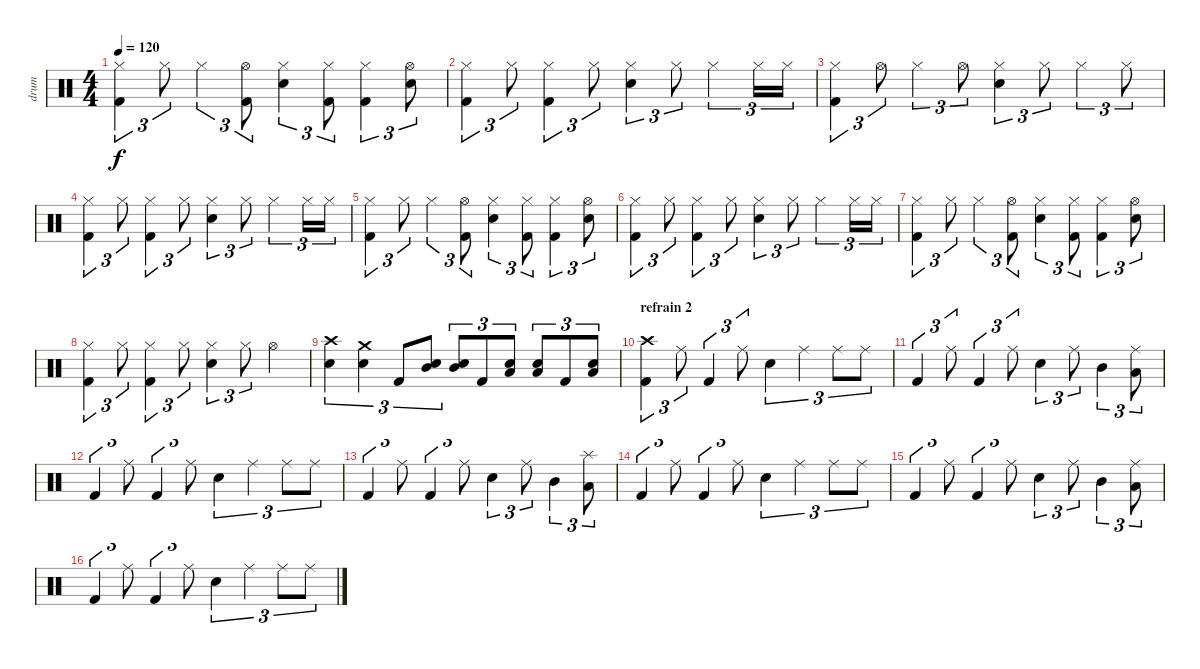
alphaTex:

\track ("drum" "drum") {instrument percussion}
\staff {score}
\articulation defaults
\ts (4 4)
\tempo 120
\clef neutral
\ks c
("Hi-Hat (closed)" "Kick (hit) 2").4{tu (3 2) dy f} "Hi-Hat (closed)".8{tu (3 2)} "Hi-Hat (closed)".4{tu (3 2)} ("Hi-Hat (open)" "Kick (hit) 2").8{tu (3 2)} ("Hi-Hat (closed)" "Electric Snare (hit)").4{tu (3 2)} ("Hi-Hat (closed)" "Kick (hit) 2").8{tu (3 2)} ("Hi-Hat (closed)" "Kick (hit) 2").4{tu (3 2)} ("Hi-Hat (open)" "Electric Snare (hit)").8{tu (3 2)} |
("Hi-Hat (closed)" "Kick (hit) 2").4{tu (3 2)} "Hi-Hat (closed)".8{tu (3 2)} ("Hi-Hat (closed)" "Kick (hit) 2").4{tu (3 2)} "Hi-Hat (closed)".8{tu (3 2)} ("Hi-Hat (closed)" "Electric Snare (hit)").4{tu (3 2)} "Hi-Hat (closed)".8{tu (3 2)} "Hi-Hat (closed)".4{tu (3 2)} "Hi-Hat (closed)".16{tu (3 2)} "Hi-Hat (closed)".16{tu (3 2)} |
("Hi-Hat (closed)" "Kick (hit) 2").4{tu (3 2)} "Hi-Hat (open)".8{tu (3 2)} "Hi-Hat (closed)".4{tu (3 2)} "Hi-Hat (open)".8{tu (3 2)} ("Hi-Hat (closed)" "Electric Snare (hit)").4{tu (3 2)} "Hi-Hat (closed)".8{tu (3 2)} "Hi-Hat (closed)".4{tu (3 2)} "Hi-Hat (closed)".8{tu (3 2)} |
("Hi-Hat (closed)" "Kick (hit) 2").4{tu (3 2)} "Hi-Hat (closed)".8{tu (3 2)} ("Hi-Hat (closed)" "Kick (hit) 2").4{tu (3 2)} "Hi-Hat (closed)".8{tu (3 2)} ("Hi-Hat (closed)" "Electric Snare (hit)").4{tu (3 2)} "Hi-Hat (closed)".8{tu (3 2)} "Hi-Hat (closed)".4{tu (3 2)} "Hi-Hat (closed)".16{tu (3 2)} "Hi-Hat (closed)".16{tu (3 2)} |
("Hi-Hat (closed)" "Kick (hit) 2").4{tu (3 2)} "Hi-Hat (closed)".8{tu (3 2)} "Hi-Hat (closed)".4{tu (3 2)} ("Hi-Hat (open)" "Kick (hit) 2").8{tu (3 2)} ("Hi-Hat (closed)" "Electric Snare (hit)").4{tu (3 2)} ("Hi-Hat (closed)" "Kick (hit) 2").8{tu (3 2)} ("Hi-Hat (closed)" "Kick (hit) 2").4{tu (3 2)} ("Hi-Hat (open)" "Electric Snare (hit)").8{tu (3 2)} |
("Hi-Hat (closed)" "Kick (hit) 2").4{tu (3 2)} "Hi-Hat (closed)".8{tu (3 2)} ("Hi-Hat (closed)" "Kick (hit) 2").4{tu (3 2)} "Hi-Hat (closed)".8{tu (3 2)} ("Hi-Hat (closed)" "Electric Snare (hit)").4{tu (3 2)} "Hi-Hat (closed)".8{tu (3 2)} "Hi-Hat (closed)".4{tu (3 2)} "Hi-Hat (closed)".16{tu (3 2)} "Hi-Hat (closed)".16{tu (3 2)} |
("Hi-Hat (closed)" "Kick (hit) 2").4{tu (3 2)} "Hi-Hat (closed)".8{tu (3 2)} "Hi-Hat (closed)".4{tu (3 2)} ("Hi-Hat (open)" "Kick (hit) 2").8{tu (3 2)} ("Hi-Hat (closed)" "Electric Snare (hit)").4{tu (3 2)} ("Hi-Hat (closed)" "Kick (hit) 2").8{tu (3 2)} ("Hi-Hat (closed)" "Kick (hit) 2").4{tu (3 2)} ("Hi-Hat (open)" "Electric Snare (hit)").8{tu (3 2)} |
("Hi-Hat (closed)" "Kick (hit) 2").4{tu (3 2)} "Hi-Hat (closed)".8{tu (3 2)} ("Hi-Hat (closed)" "Kick (hit) 2").4{tu (3 2)} "Hi-Hat (closed)".8{tu (3 2)} ("Hi-Hat (closed)" "Electric Snare (hit)").4{tu (3 2)} "Hi-Hat (closed)".8{tu (3 2)} "Hi-Hat (open)".4 |
("Crash high (hit)" "Electric Snare (hit)").4{tu (3 2)} ("Crash medium (hit)" "Electric Snare (hit)").4{tu (3 2)} "Kick (hit) 2".8{tu (3 2)} ("Mid Tom (hit)" "Electric Snare (hit)").8{tu (3 2)} ("Mid Tom (hit)" "Electric Snare (hit)").8{tu (3 2)} "Kick (hit) 2".8{tu (3 2)} ("Low Tom (hit)" "Electric Snare (hit)").8{tu (3 2)} ("Low Tom (hit)" "Electric Snare (hit)").8{tu (3 2)} "Kick (hit) 2".8{tu (3 2)} ("Low Tom (hit)" "Electric Snare (hit)").8{tu (3 2)} |
\section ("" "refrain 2")
("Crash high (hit)" "Kick (hit) 2").4{tu (3 2)} "Ride (middle)".8{tu (3 2)} "Kick (hit) 2".4{tu (3 2)} "Ride (middle)".8{tu (3 2)} "Electric Snare (hit)".4{tu (3 2)} "Ride (middle)".4{tu (3 2)} "Ride (middle)".8{tu (3 2)} "Ride (middle)".8{tu (3 2)} |
"Kick (hit) 2".4{tu (3 2)} "Ride (middle)".8{tu (3 2)} "Kick (hit) 2".4{tu (3 2)} "Ride (middle)".8{tu (3 2)} "Electric Snare (hit)".4{tu (3 2)} "Ride (middle)".8{tu (3 2)} "Mid Tom (hit)".4{tu (3 2)} ("Ride (middle)" "Low Tom (hit)").8{tu (3 2)} |
"Kick (hit) 2".4{tu (3 2)} "Ride (middle)".8{tu (3 2)} "Kick (hit) 2".4{tu (3 2)} "Ride (middle)".8{tu (3 2)} "Electric Snare (hit)".4{tu (3 2)} "Ride (middle)".4{tu (3 2)} "Ride (middle)".8{tu (3 2)} "Ride (middle)".8{tu (3 2)} |
"Kick (hit) 2".4{tu (3 2)} "Ride (middle)".8{tu (3 2)} "Kick (hit) 2".4{tu (3 2)} "Ride (middle)".8{tu (3 2)} "Electric Snare (hit)".4{tu (3 2)} "Ride (middle)".8{tu (3 2)} "Mid Tom (hit)".4{tu (3 2)} ("Splash (hit)" "Low Tom (hit)").8{tu (3 2)} |
"Kick (hit) 2".4{tu (3 2)} "Ride (middle)".8{tu (3 2)} "Kick (hit) 2".4{tu (3 2)} "Ride (middle)".8{tu (3 2)} "Electric Snare (hit)".4{tu (3 2)} "Ride (middle)".4{tu (3 2)} "Ride (middle)".8{tu (3 2)} "Ride (middle)".8{tu (3 2)} |
"Kick (hit) 2".4{tu (3 2)} "Ride (middle)".8{tu (3 2)} "Kick (hit) 2".4{tu (3 2)} "Ride (middle)".8{tu (3 2)} "Electric Snare (hit)".4{tu (3 2)} "Ride (middle)".8{tu (3 2)} "Mid Tom (hit)".4{tu (3 2)} ("Ride (middle)" "Low Tom (hit)").8{tu (3 2)} |
"Kick (hit) 2".4{tu (3 2)} "Ride (middle)".8{tu (3 2)} "Kick (hit) 2".4{tu (3 2)} "Ride (middle)".8{tu (3 2)} "Electric Snare (hit)".4{tu (3 2)} "Ride (middle)".4{tu (3 2)} "Ride (middle)".8{tu (3 2)} "Ride (middle)".8{tu (3 2)}
